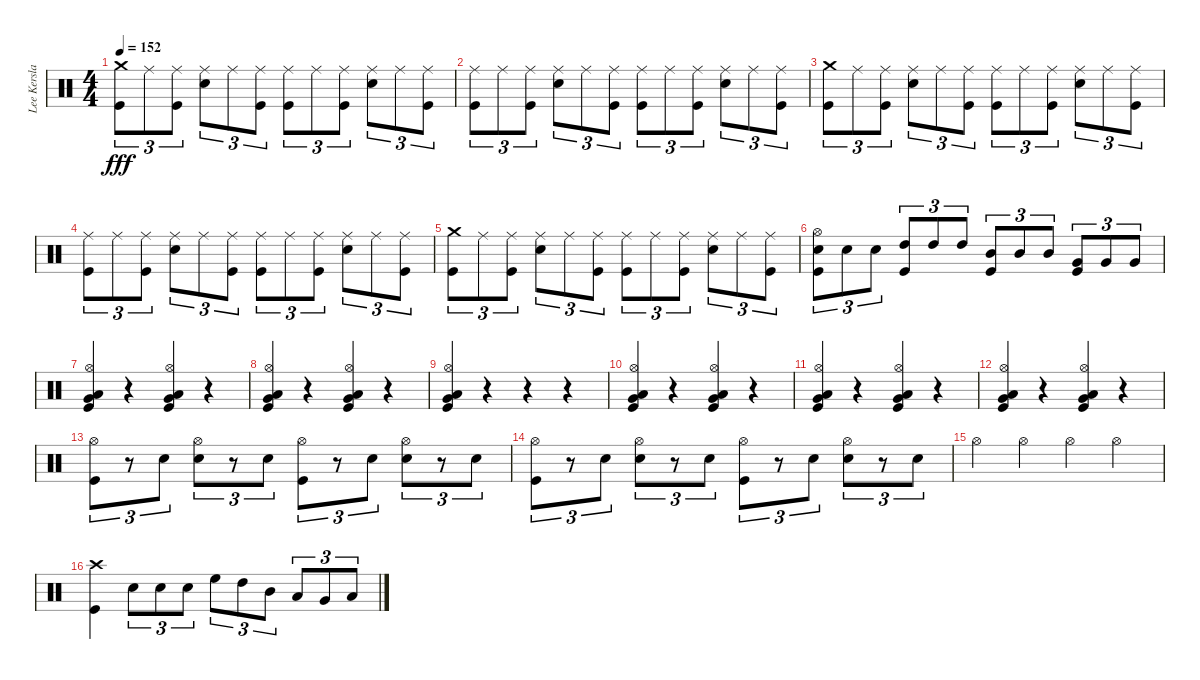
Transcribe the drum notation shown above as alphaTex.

\track ("Lee Kerslake" "Lee Kersla") {instrument percussion}
\staff {score}
\articulation defaults
\ts (4 4)
\tempo 152
\clef neutral
\ks c
("Crash medium (hit)" "Kick (hit)").8{tu (3 2) dy fff} "Ride (middle)".8{tu (3 2)} ("Ride (middle)" "Kick (hit)").8{tu (3 2)} ("Ride (middle)" "Electric Snare (hit)").8{tu (3 2)} "Ride (middle)".8{tu (3 2)} ("Ride (middle)" "Kick (hit)").8{tu (3 2)} ("Ride (middle)" "Kick (hit)").8{tu (3 2)} "Ride (middle)".8{tu (3 2)} ("Ride (middle)" "Kick (hit)").8{tu (3 2)} ("Ride (middle)" "Electric Snare (hit)").8{tu (3 2)} "Ride (middle)".8{tu (3 2)} ("Ride (middle)" "Kick (hit)").8{tu (3 2)} |
("Ride (middle)" "Kick (hit)").8{tu (3 2)} "Ride (middle)".8{tu (3 2)} ("Ride (middle)" "Kick (hit)").8{tu (3 2)} ("Ride (middle)" "Electric Snare (hit)").8{tu (3 2)} "Ride (middle)".8{tu (3 2)} ("Ride (middle)" "Kick (hit)").8{tu (3 2)} ("Ride (middle)" "Kick (hit)").8{tu (3 2)} "Ride (middle)".8{tu (3 2)} ("Ride (middle)" "Kick (hit)").8{tu (3 2)} ("Ride (middle)" "Electric Snare (hit)").8{tu (3 2)} "Ride (middle)".8{tu (3 2)} ("Ride (middle)" "Kick (hit)").8{tu (3 2)} |
("Crash medium (hit)" "Kick (hit)").8{tu (3 2)} "Ride (middle)".8{tu (3 2)} ("Ride (middle)" "Kick (hit)").8{tu (3 2)} ("Ride (middle)" "Electric Snare (hit)").8{tu (3 2)} "Ride (middle)".8{tu (3 2)} ("Ride (middle)" "Kick (hit)").8{tu (3 2)} ("Ride (middle)" "Kick (hit)").8{tu (3 2)} "Ride (middle)".8{tu (3 2)} ("Ride (middle)" "Kick (hit)").8{tu (3 2)} ("Ride (middle)" "Electric Snare (hit)").8{tu (3 2)} "Ride (middle)".8{tu (3 2)} ("Ride (middle)" "Kick (hit)").8{tu (3 2)} |
("Ride (middle)" "Kick (hit)").8{tu (3 2)} "Ride (middle)".8{tu (3 2)} ("Ride (middle)" "Kick (hit)").8{tu (3 2)} ("Ride (middle)" "Electric Snare (hit)").8{tu (3 2)} "Ride (middle)".8{tu (3 2)} ("Ride (middle)" "Kick (hit)").8{tu (3 2)} ("Ride (middle)" "Kick (hit)").8{tu (3 2)} "Ride (middle)".8{tu (3 2)} ("Ride (middle)" "Kick (hit)").8{tu (3 2)} ("Ride (middle)" "Electric Snare (hit)").8{tu (3 2)} "Ride (middle)".8{tu (3 2)} ("Ride (middle)" "Kick (hit)").8{tu (3 2)} |
("Crash medium (hit)" "Kick (hit)").8{tu (3 2)} "Ride (middle)".8{tu (3 2)} ("Ride (middle)" "Kick (hit)").8{tu (3 2)} ("Ride (middle)" "Electric Snare (hit)").8{tu (3 2)} "Ride (middle)".8{tu (3 2)} ("Ride (middle)" "Kick (hit)").8{tu (3 2)} ("Ride (middle)" "Kick (hit)").8{tu (3 2)} "Ride (middle)".8{tu (3 2)} ("Ride (middle)" "Kick (hit)").8{tu (3 2)} ("Ride (middle)" "Electric Snare (hit)").8{tu (3 2)} "Ride (middle)".8{tu (3 2)} ("Ride (middle)" "Kick (hit)").8{tu (3 2)} |
("Electric Snare (hit)" "Hi-Hat (open)" "Kick (hit)").8{tu (3 2)} "Electric Snare (hit)".8{tu (3 2)} "Electric Snare (hit)".8{tu (3 2)} ("High Tom (hit)" "Kick (hit)").8{tu (3 2)} "High Tom (hit)".8{tu (3 2)} "High Tom (hit)".8{tu (3 2)} ("Mid Tom (hit)" "Kick (hit)").8{tu (3 2)} "Mid Tom (hit)".8{tu (3 2)} "Mid Tom (hit)".8{tu (3 2)} ("Very Low Tom (hit)" "Kick (hit)").8{tu (3 2)} "Very Low Tom (hit)".8{tu (3 2)} "Very Low Tom (hit)".8{tu (3 2)} |
("Very Low Tom (hit)" "Hi-Hat (open)" "Low Floor Tom (hit)" "Kick (hit)").4 r.4 ("Very Low Tom (hit)" "Hi-Hat (open)" "Low Floor Tom (hit)" "Kick (hit)").4 r.4 |
("Very Low Tom (hit)" "Hi-Hat (open)" "Low Floor Tom (hit)" "Kick (hit)").4 r.4 ("Very Low Tom (hit)" "Hi-Hat (open)" "Low Floor Tom (hit)" "Kick (hit)").4 r.4 |
("Very Low Tom (hit)" "Hi-Hat (open)" "Low Floor Tom (hit)" "Kick (hit)").4 r.4 r.4 r.4 |
("Very Low Tom (hit)" "Hi-Hat (open)" "Low Floor Tom (hit)" "Kick (hit)").4 r.4 ("Very Low Tom (hit)" "Hi-Hat (open)" "Low Floor Tom (hit)" "Kick (hit)").4 r.4 |
("Very Low Tom (hit)" "Hi-Hat (open)" "Low Floor Tom (hit)" "Kick (hit)").4 r.4 ("Very Low Tom (hit)" "Hi-Hat (open)" "Low Floor Tom (hit)" "Kick (hit)").4 r.4 |
("Very Low Tom (hit)" "Hi-Hat (open)" "Low Floor Tom (hit)" "Kick (hit)").4 r.4 ("Very Low Tom (hit)" "Hi-Hat (open)" "Low Floor Tom (hit)" "Kick (hit)").4 r.4 |
("Hi-Hat (open)" "Kick (hit)").8{tu (3 2)} r.8{tu (3 2)} "Electric Snare (hit)".8{tu (3 2)} ("Hi-Hat (open)" "Electric Snare (hit)").8{tu (3 2)} r.8{tu (3 2)} "Electric Snare (hit)".8{tu (3 2)} ("Hi-Hat (open)" "Kick (hit)").8{tu (3 2)} r.8{tu (3 2)} "Electric Snare (hit)".8{tu (3 2)} ("Hi-Hat (open)" "Electric Snare (hit)").8{tu (3 2)} r.8{tu (3 2)} "Electric Snare (hit)".8{tu (3 2)} |
("Hi-Hat (open)" "Kick (hit)").8{tu (3 2)} r.8{tu (3 2)} "Electric Snare (hit)".8{tu (3 2)} ("Hi-Hat (open)" "Electric Snare (hit)").8{tu (3 2)} r.8{tu (3 2)} "Electric Snare (hit)".8{tu (3 2)} ("Hi-Hat (open)" "Kick (hit)").8{tu (3 2)} r.8{tu (3 2)} "Electric Snare (hit)".8{tu (3 2)} ("Hi-Hat (open)" "Electric Snare (hit)").8{tu (3 2)} r.8{tu (3 2)} "Electric Snare (hit)".8{tu (3 2)} |
"Hi-Hat (open)".4 "Hi-Hat (open)".4 "Hi-Hat (open)".4 "Hi-Hat (open)".4 |
("Crash high (hit)" "Kick (hit)").4 "Electric Snare (hit)".8{tu (3 2)} "Electric Snare (hit)".8{tu (3 2)} "Electric Snare (hit)".8{tu (3 2)} "High Floor Tom (hit)".8{tu (3 2)} "High Tom (hit)".8{tu (3 2)} "Mid Tom (hit)".8{tu (3 2)} "Low Tom (hit)".8{tu (3 2)} "Very Low Tom (hit)".8{tu (3 2)} "Low Floor Tom (hit)".8{tu (3 2)}
